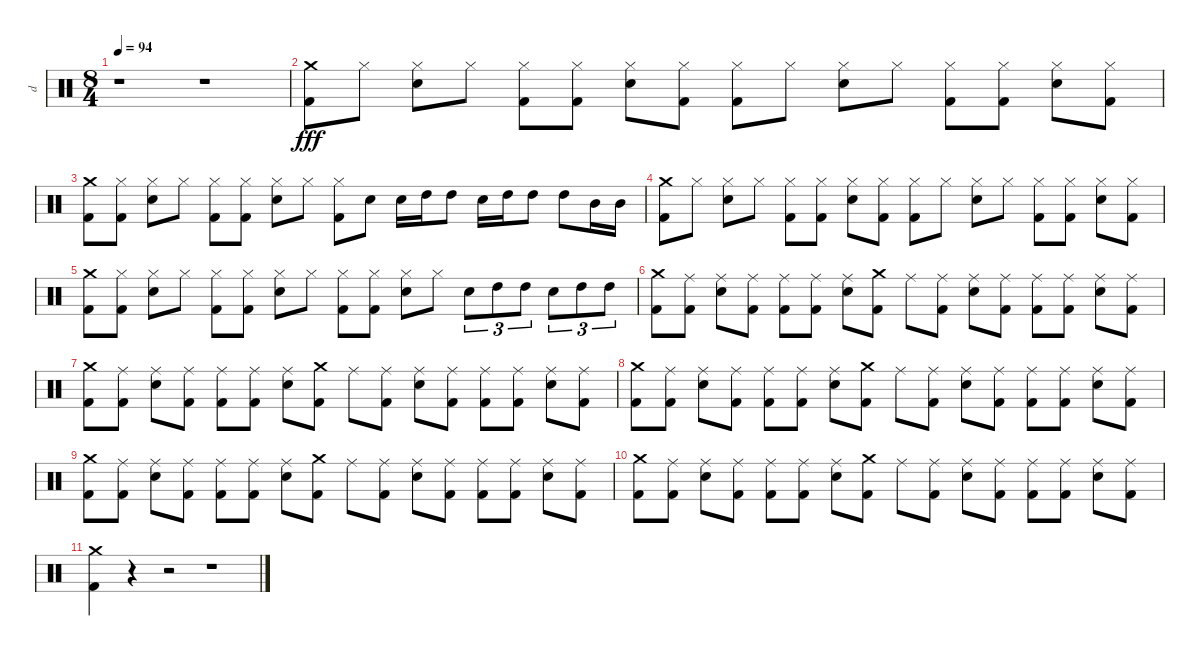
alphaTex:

\track ("d" "d") {instrument percussion}
\staff {score}
\articulation defaults
\ts (8 4)
\tempo 94
\clef neutral
\ks c
r.1{dy fff} r.1 |
("Crash medium (hit)" "Kick (hit) 2").8 "Hi-Hat (closed)".8 ("Hi-Hat (closed)" "Snare (hit) 2").8 "Hi-Hat (closed)".8 ("Hi-Hat (closed)" "Kick (hit) 2").8 ("Hi-Hat (closed)" "Kick (hit) 2").8 ("Hi-Hat (closed)" "Snare (hit) 2").8 ("Hi-Hat (closed)" "Kick (hit) 2").8 ("Hi-Hat (closed)" "Kick (hit) 2").8 "Hi-Hat (closed)".8 ("Hi-Hat (closed)" "Snare (hit) 2").8 "Hi-Hat (closed)".8 ("Hi-Hat (closed)" "Kick (hit) 2").8 ("Hi-Hat (closed)" "Kick (hit) 2").8 ("Hi-Hat (closed)" "Snare (hit) 2").8 ("Hi-Hat (closed)" "Kick (hit) 2").8 |
("Crash medium (hit)" "Kick (hit) 2").8 ("Hi-Hat (closed)" "Kick (hit) 2").8 ("Hi-Hat (closed)" "Snare (hit) 2").8 "Hi-Hat (closed)".8 ("Hi-Hat (closed)" "Kick (hit) 2").8 ("Hi-Hat (closed)" "Kick (hit) 2").8 ("Hi-Hat (closed)" "Snare (hit) 2").8 "Hi-Hat (closed)".8 ("Hi-Hat (closed)" "Kick (hit) 2").8 "Snare (hit) 2".8 "Snare (hit) 2".16 "High Tom (hit)".16 "High Tom (hit)".8 "Snare (hit) 2".16 "High Tom (hit)".16 "High Tom (hit)".8 "High Tom (hit)".8 "Mid Tom (hit)".16 "Mid Tom (hit)".16 |
("Crash medium (hit)" "Kick (hit) 2").8 "Hi-Hat (closed)".8 ("Hi-Hat (closed)" "Snare (hit) 2").8 "Hi-Hat (closed)".8 ("Hi-Hat (closed)" "Kick (hit) 2").8 ("Hi-Hat (closed)" "Kick (hit) 2").8 ("Hi-Hat (closed)" "Snare (hit) 2").8 ("Hi-Hat (closed)" "Kick (hit) 2").8 ("Hi-Hat (closed)" "Kick (hit) 2").8 "Hi-Hat (closed)".8 ("Hi-Hat (closed)" "Snare (hit) 2").8 "Hi-Hat (closed)".8 ("Hi-Hat (closed)" "Kick (hit) 2").8 ("Hi-Hat (closed)" "Kick (hit) 2").8 ("Hi-Hat (closed)" "Snare (hit) 2").8 ("Hi-Hat (closed)" "Kick (hit) 2").8 |
("Crash medium (hit)" "Kick (hit) 2").8 ("Hi-Hat (closed)" "Kick (hit) 2").8 ("Hi-Hat (closed)" "Snare (hit) 2").8 "Hi-Hat (closed)".8 ("Hi-Hat (closed)" "Kick (hit) 2").8 ("Hi-Hat (closed)" "Kick (hit) 2").8 ("Hi-Hat (closed)" "Snare (hit) 2").8 "Hi-Hat (closed)".8 ("Hi-Hat (closed)" "Kick (hit) 2").8 ("Hi-Hat (closed)" "Kick (hit) 2").8 ("Hi-Hat (closed)" "Snare (hit) 2").8 "Hi-Hat (closed)".8 "Snare (hit) 2".8{tu (3 2)} "High Tom (hit)".8{tu (3 2)} "High Tom (hit)".8{tu (3 2)} "Snare (hit) 2".8{tu (3 2)} "High Tom (hit)".8{tu (3 2)} "High Tom (hit)".8{tu (3 2)} |
("Crash medium (hit)" "Kick (hit) 2").8 ("Ride (middle)" "Kick (hit) 2").8 ("Ride (middle)" "Snare (hit) 2").8 ("Ride (middle)" "Kick (hit) 2").8 ("Ride (middle)" "Kick (hit) 2").8 ("Ride (middle)" "Kick (hit) 2").8 ("Ride (middle)" "Snare (hit) 2").8 ("Crash medium (hit)" "Kick (hit) 2").8 "Ride (middle)".8 ("Ride (middle)" "Kick (hit) 2").8 ("Ride (middle)" "Snare (hit) 2").8 ("Ride (middle)" "Kick (hit) 2").8 ("Ride (middle)" "Kick (hit) 2").8 ("Ride (middle)" "Kick (hit) 2").8 ("Ride (middle)" "Snare (hit) 2").8 ("Ride (middle)" "Kick (hit) 2").8 |
("Crash medium (hit)" "Kick (hit) 2").8 ("Ride (middle)" "Kick (hit) 2").8 ("Ride (middle)" "Snare (hit) 2").8 ("Ride (middle)" "Kick (hit) 2").8 ("Ride (middle)" "Kick (hit) 2").8 ("Ride (middle)" "Kick (hit) 2").8 ("Ride (middle)" "Snare (hit) 2").8 ("Crash medium (hit)" "Kick (hit) 2").8 "Ride (middle)".8 ("Ride (middle)" "Kick (hit) 2").8 ("Ride (middle)" "Snare (hit) 2").8 ("Ride (middle)" "Kick (hit) 2").8 ("Ride (middle)" "Kick (hit) 2").8 ("Ride (middle)" "Kick (hit) 2").8 ("Ride (middle)" "Snare (hit) 2").8 ("Ride (middle)" "Kick (hit) 2").8 |
("Crash medium (hit)" "Kick (hit) 2").8 ("Ride (middle)" "Kick (hit) 2").8 ("Ride (middle)" "Snare (hit) 2").8 ("Ride (middle)" "Kick (hit) 2").8 ("Ride (middle)" "Kick (hit) 2").8 ("Ride (middle)" "Kick (hit) 2").8 ("Ride (middle)" "Snare (hit) 2").8 ("Crash medium (hit)" "Kick (hit) 2").8 "Ride (middle)".8 ("Ride (middle)" "Kick (hit) 2").8 ("Ride (middle)" "Snare (hit) 2").8 ("Ride (middle)" "Kick (hit) 2").8 ("Ride (middle)" "Kick (hit) 2").8 ("Ride (middle)" "Kick (hit) 2").8 ("Ride (middle)" "Snare (hit) 2").8 ("Ride (middle)" "Kick (hit) 2").8 |
("Crash medium (hit)" "Kick (hit) 2").8 ("Ride (middle)" "Kick (hit) 2").8 ("Ride (middle)" "Snare (hit) 2").8 ("Ride (middle)" "Kick (hit) 2").8 ("Ride (middle)" "Kick (hit) 2").8 ("Ride (middle)" "Kick (hit) 2").8 ("Ride (middle)" "Snare (hit) 2").8 ("Crash medium (hit)" "Kick (hit) 2").8 "Ride (middle)".8 ("Ride (middle)" "Kick (hit) 2").8 ("Ride (middle)" "Snare (hit) 2").8 ("Ride (middle)" "Kick (hit) 2").8 ("Ride (middle)" "Kick (hit) 2").8 ("Ride (middle)" "Kick (hit) 2").8 ("Ride (middle)" "Snare (hit) 2").8 ("Ride (middle)" "Kick (hit) 2").8 |
("Crash medium (hit)" "Kick (hit) 2").8 ("Ride (middle)" "Kick (hit) 2").8 ("Ride (middle)" "Snare (hit) 2").8 ("Ride (middle)" "Kick (hit) 2").8 ("Ride (middle)" "Kick (hit) 2").8 ("Ride (middle)" "Kick (hit) 2").8 ("Ride (middle)" "Snare (hit) 2").8 ("Crash medium (hit)" "Kick (hit) 2").8 "Ride (middle)".8 ("Ride (middle)" "Kick (hit) 2").8 ("Ride (middle)" "Snare (hit) 2").8 ("Ride (middle)" "Kick (hit) 2").8 ("Ride (middle)" "Kick (hit) 2").8 ("Ride (middle)" "Kick (hit) 2").8 ("Ride (middle)" "Snare (hit) 2").8 ("Ride (middle)" "Kick (hit) 2").8 |
("Crash medium (hit)" "Kick (hit) 2").4 r.4 r.2 r.1
